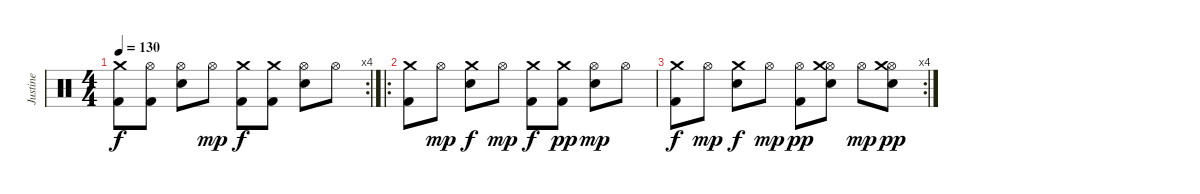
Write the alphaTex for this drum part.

\track ("Justine" "Justine") {instrument percussion}
\staff {score}
\articulation defaults
\rc 4
\ts (4 4)
\tempo 130
\clef neutral
\ks c
("Crash medium (hit)" "Kick (hit) 2").8{dy f} ("Hi-Hat (open)" "Kick (hit) 2").8 ("Hi-Hat (open)" "Electric Snare (hit)").8 "Hi-Hat (open)".8{dy mp} ("Crash medium (hit)" "Kick (hit) 2").8{dy f} ("Crash medium (hit)" "Kick (hit) 2").8 ("Hi-Hat (open)" "Electric Snare (hit)").8 "Hi-Hat (open)".8 |
\ro
("Crash medium (hit)" "Kick (hit) 2").8 "Hi-Hat (open)".8{dy mp} ("Crash medium (hit)" "Electric Snare (hit)").8{dy f} "Hi-Hat (open)".8{dy mp} ("Crash medium (hit)" "Kick (hit) 2").8{dy f} ("Crash medium (hit)" "Kick (hit) 2").8{dy pp} ("Hi-Hat (open)" "Electric Snare (hit)").8{dy mp} "Hi-Hat (open)".8 |
\rc 4
("Crash medium (hit)" "Kick (hit) 2").8{dy f} "Hi-Hat (open)".8{dy mp} ("Crash medium (hit)" "Electric Snare (hit)").8{dy f} "Hi-Hat (open)".8{dy mp} ("Hi-Hat (open)" "Kick (hit) 2").8{dy pp} ("Hi-Hat (open)" "Crash medium (hit)" "Electric Snare (hit)").8 "Hi-Hat (open)".8{dy mp} ("Hi-Hat (open)" "Crash medium (hit)" "Electric Snare (hit)").8{dy pp}
